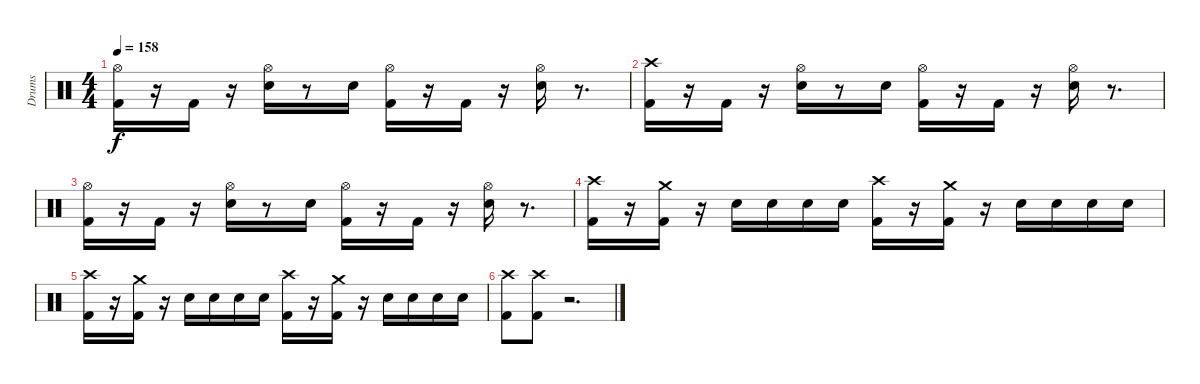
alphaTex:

\track ("Drums" "Drums") {instrument percussion}
\staff {score}
\articulation defaults
\ts (4 4)
\tempo 158
\clef neutral
\ks c
("Hi-Hat (open)" "Kick (hit) 2").16{dy f} r.16 "Kick (hit) 2".16 r.16 ("Hi-Hat (open)" "Electric Snare (hit)").16 r.8 "Electric Snare (hit)".16 ("Hi-Hat (open)" "Kick (hit) 2").16 r.16 "Kick (hit) 2".16 r.16 ("Hi-Hat (open)" "Electric Snare (hit)").16 r.8{d} |
("Crash high (hit)" "Kick (hit) 2").16 r.16 "Kick (hit) 2".16 r.16 ("Hi-Hat (open)" "Electric Snare (hit)").16 r.8 "Electric Snare (hit)".16 ("Hi-Hat (open)" "Kick (hit) 2").16 r.16 "Kick (hit) 2".16 r.16 ("Hi-Hat (open)" "Electric Snare (hit)").16 r.8{d} |
("Hi-Hat (open)" "Kick (hit) 2").16 r.16 "Kick (hit) 2".16 r.16 ("Hi-Hat (open)" "Electric Snare (hit)").16 r.8 "Electric Snare (hit)".16 ("Hi-Hat (open)" "Kick (hit) 2").16 r.16 "Kick (hit) 2".16 r.16 ("Hi-Hat (open)" "Electric Snare (hit)").16 r.8{d} |
("Crash high (hit)" "Kick (hit) 2").16 r.16 ("Crash medium (hit)" "Kick (hit) 2").16 r.16 "Electric Snare (hit)".16 "Electric Snare (hit)".16 "Electric Snare (hit)".16 "Electric Snare (hit)".16 ("Crash high (hit)" "Kick (hit) 2").16 r.16 ("Crash medium (hit)" "Kick (hit) 2").16 r.16 "Electric Snare (hit)".16 "Electric Snare (hit)".16 "Electric Snare (hit)".16 "Electric Snare (hit)".16 |
("Crash high (hit)" "Kick (hit) 2").16 r.16 ("Crash medium (hit)" "Kick (hit) 2").16 r.16 "Electric Snare (hit)".16 "Electric Snare (hit)".16 "Electric Snare (hit)".16 "Electric Snare (hit)".16 ("Crash high (hit)" "Kick (hit) 2").16 r.16 ("Crash medium (hit)" "Kick (hit) 2").16 r.16 "Electric Snare (hit)".16 "Electric Snare (hit)".16 "Electric Snare (hit)".16 "Electric Snare (hit)".16 |
("Crash high (hit)" "Kick (hit) 2").8 ("Crash high (hit)" "Kick (hit) 2").8 r.2{d}
